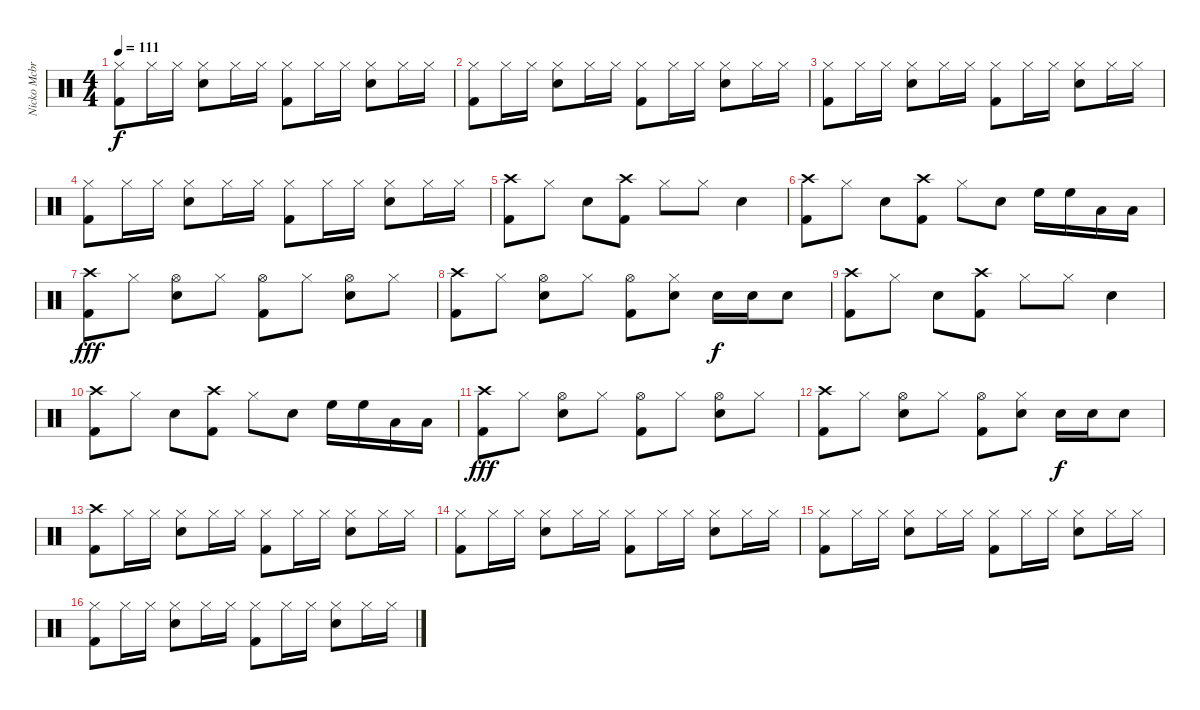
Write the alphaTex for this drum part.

\track ("Nicko Mcbrain" "Nicko Mcbr") {instrument percussion}
\staff {score}
\articulation defaults
\ts (4 4)
\tempo 111
\clef neutral
\ks c
("Hi-Hat (closed)" "Kick (hit) 2").8{dy f} "Hi-Hat (closed)".16 "Hi-Hat (closed)".16 ("Hi-Hat (closed)" "Snare (hit) 2").8 "Hi-Hat (closed)".16 "Hi-Hat (closed)".16 ("Hi-Hat (closed)" "Kick (hit) 2").8 "Hi-Hat (closed)".16 "Hi-Hat (closed)".16 ("Hi-Hat (closed)" "Snare (hit) 2").8 "Hi-Hat (closed)".16 "Hi-Hat (closed)".16 |
("Hi-Hat (closed)" "Kick (hit) 2").8 "Hi-Hat (closed)".16 "Hi-Hat (closed)".16 ("Hi-Hat (closed)" "Snare (hit) 2").8 "Hi-Hat (closed)".16 "Hi-Hat (closed)".16 ("Hi-Hat (closed)" "Kick (hit) 2").8 "Hi-Hat (closed)".16 "Hi-Hat (closed)".16 ("Hi-Hat (closed)" "Snare (hit) 2").8 "Hi-Hat (closed)".16 "Hi-Hat (closed)".16 |
("Hi-Hat (closed)" "Kick (hit) 2").8 "Hi-Hat (closed)".16 "Hi-Hat (closed)".16 ("Hi-Hat (closed)" "Snare (hit) 2").8 "Hi-Hat (closed)".16 "Hi-Hat (closed)".16 ("Hi-Hat (closed)" "Kick (hit) 2").8 "Hi-Hat (closed)".16 "Hi-Hat (closed)".16 ("Hi-Hat (closed)" "Snare (hit) 2").8 "Hi-Hat (closed)".16 "Hi-Hat (closed)".16 |
("Hi-Hat (closed)" "Kick (hit) 2").8 "Hi-Hat (closed)".16 "Hi-Hat (closed)".16 ("Hi-Hat (closed)" "Snare (hit) 2").8 "Hi-Hat (closed)".16 "Hi-Hat (closed)".16 ("Hi-Hat (closed)" "Kick (hit) 2").8 "Hi-Hat (closed)".16 "Hi-Hat (closed)".16 ("Hi-Hat (closed)" "Snare (hit) 2").8 "Hi-Hat (closed)".16 "Hi-Hat (closed)".16 |
("Crash high (hit)" "Kick (hit) 2").8 "Hi-Hat (closed)".8 "Snare (hit) 2".8 ("Crash high (hit)" "Kick (hit) 2").8 "Hi-Hat (closed)".8 "Hi-Hat (closed)".8 "Snare (hit) 2".4 |
("Crash high (hit)" "Kick (hit) 2").8 "Hi-Hat (closed)".8 "Snare (hit) 2".8 ("Crash high (hit)" "Kick (hit) 2").8 "Hi-Hat (closed)".8 "Snare (hit) 2".8 "High Floor Tom (hit)".16 "High Floor Tom (hit)".16 "Low Tom (hit)".16 "Low Tom (hit)".16 |
("Crash high (hit)" "Kick (hit) 2").8{dy fff} "Hi-Hat (closed)".8 ("Hi-Hat (open)" "Snare (hit) 2").8 "Hi-Hat (closed)".8 ("Hi-Hat (open)" "Kick (hit) 2").8 "Hi-Hat (closed)".8 ("Hi-Hat (open)" "Snare (hit) 2").8 "Hi-Hat (closed)".8 |
("Crash high (hit)" "Kick (hit) 2").8 "Hi-Hat (closed)".8 ("Hi-Hat (open)" "Snare (hit) 2").8 "Hi-Hat (closed)".8 ("Hi-Hat (open)" "Kick (hit) 2").8 ("Hi-Hat (closed)" "Snare (hit) 2").8 "Snare (hit) 2".16{dy f} "Snare (hit) 2".16 "Snare (hit) 2".8 |
("Crash high (hit)" "Kick (hit) 2").8 "Hi-Hat (closed)".8 "Snare (hit) 2".8 ("Crash high (hit)" "Kick (hit) 2").8 "Hi-Hat (closed)".8 "Hi-Hat (closed)".8 "Snare (hit) 2".4 |
("Crash high (hit)" "Kick (hit) 2").8 "Hi-Hat (closed)".8 "Snare (hit) 2".8 ("Crash high (hit)" "Kick (hit) 2").8 "Hi-Hat (closed)".8 "Snare (hit) 2".8 "High Floor Tom (hit)".16 "High Floor Tom (hit)".16 "Low Tom (hit)".16 "Low Tom (hit)".16 |
("Crash high (hit)" "Kick (hit) 2").8{dy fff} "Hi-Hat (closed)".8 ("Hi-Hat (open)" "Snare (hit) 2").8 "Hi-Hat (closed)".8 ("Hi-Hat (open)" "Kick (hit) 2").8 "Hi-Hat (closed)".8 ("Hi-Hat (open)" "Snare (hit) 2").8 "Hi-Hat (closed)".8 |
("Crash high (hit)" "Kick (hit) 2").8 "Hi-Hat (closed)".8 ("Hi-Hat (open)" "Snare (hit) 2").8 "Hi-Hat (closed)".8 ("Hi-Hat (open)" "Kick (hit) 2").8 ("Hi-Hat (closed)" "Snare (hit) 2").8 "Snare (hit) 2".16{dy f} "Snare (hit) 2".16 "Snare (hit) 2".8 |
("Crash high (hit)" "Kick (hit) 2").8 "Hi-Hat (closed)".16 "Hi-Hat (closed)".16 ("Hi-Hat (closed)" "Snare (hit) 2").8 "Hi-Hat (closed)".16 "Hi-Hat (closed)".16 ("Hi-Hat (closed)" "Kick (hit) 2").8 "Hi-Hat (closed)".16 "Hi-Hat (closed)".16 ("Hi-Hat (closed)" "Snare (hit) 2").8 "Hi-Hat (closed)".16 "Hi-Hat (closed)".16 |
("Hi-Hat (closed)" "Kick (hit) 2").8 "Hi-Hat (closed)".16 "Hi-Hat (closed)".16 ("Hi-Hat (closed)" "Snare (hit) 2").8 "Hi-Hat (closed)".16 "Hi-Hat (closed)".16 ("Hi-Hat (closed)" "Kick (hit) 2").8 "Hi-Hat (closed)".16 "Hi-Hat (closed)".16 ("Hi-Hat (closed)" "Snare (hit) 2").8 "Hi-Hat (closed)".16 "Hi-Hat (closed)".16 |
("Hi-Hat (closed)" "Kick (hit) 2").8 "Hi-Hat (closed)".16 "Hi-Hat (closed)".16 ("Hi-Hat (closed)" "Snare (hit) 2").8 "Hi-Hat (closed)".16 "Hi-Hat (closed)".16 ("Hi-Hat (closed)" "Kick (hit) 2").8 "Hi-Hat (closed)".16 "Hi-Hat (closed)".16 ("Hi-Hat (closed)" "Snare (hit) 2").8 "Hi-Hat (closed)".16 "Hi-Hat (closed)".16 |
("Hi-Hat (closed)" "Kick (hit) 2").8 "Hi-Hat (closed)".16 "Hi-Hat (closed)".16 ("Hi-Hat (closed)" "Snare (hit) 2").8 "Hi-Hat (closed)".16 "Hi-Hat (closed)".16 ("Hi-Hat (closed)" "Kick (hit) 2").8 "Hi-Hat (closed)".16 "Hi-Hat (closed)".16 ("Hi-Hat (closed)" "Snare (hit) 2").8 "Hi-Hat (closed)".16 "Hi-Hat (closed)".16
